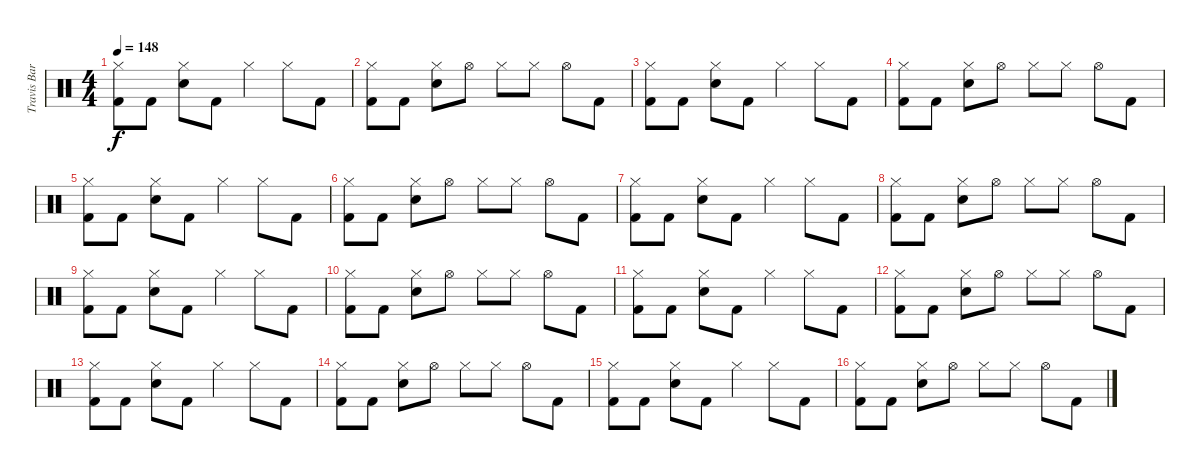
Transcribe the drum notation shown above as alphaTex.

\track ("Travis Barker - Drums" "Travis Bar") {instrument percussion}
\staff {score}
\articulation defaults
\ts (4 4)
\tempo 148
\clef neutral
\ks c
("Hi-Hat (closed)" "Kick (hit) 2").8{dy f} "Kick (hit) 2".8 ("Hi-Hat (closed)" "Electric Snare (hit)").8 "Kick (hit) 2".8 "Hi-Hat (closed)".4 "Hi-Hat (closed)".8 "Kick (hit) 2".8 |
("Hi-Hat (closed)" "Kick (hit) 2").8 "Kick (hit) 2".8 ("Hi-Hat (closed)" "Electric Snare (hit)").8 "Hi-Hat (open)".8 "Hi-Hat (closed)".8 "Hi-Hat (closed)".8 "Hi-Hat (open)".8 "Kick (hit) 2".8 |
("Hi-Hat (closed)" "Kick (hit) 2").8 "Kick (hit) 2".8 ("Hi-Hat (closed)" "Electric Snare (hit)").8 "Kick (hit) 2".8 "Hi-Hat (closed)".4 "Hi-Hat (closed)".8 "Kick (hit) 2".8 |
("Hi-Hat (closed)" "Kick (hit) 2").8 "Kick (hit) 2".8 ("Hi-Hat (closed)" "Electric Snare (hit)").8 "Hi-Hat (open)".8 "Hi-Hat (closed)".8 "Hi-Hat (closed)".8 "Hi-Hat (open)".8 "Kick (hit) 2".8 |
("Hi-Hat (closed)" "Kick (hit) 2").8 "Kick (hit) 2".8 ("Hi-Hat (closed)" "Electric Snare (hit)").8 "Kick (hit) 2".8 "Hi-Hat (closed)".4 "Hi-Hat (closed)".8 "Kick (hit) 2".8 |
("Hi-Hat (closed)" "Kick (hit) 2").8 "Kick (hit) 2".8 ("Hi-Hat (closed)" "Electric Snare (hit)").8 "Hi-Hat (open)".8 "Hi-Hat (closed)".8 "Hi-Hat (closed)".8 "Hi-Hat (open)".8 "Kick (hit) 2".8 |
("Hi-Hat (closed)" "Kick (hit) 2").8 "Kick (hit) 2".8 ("Hi-Hat (closed)" "Electric Snare (hit)").8 "Kick (hit) 2".8 "Hi-Hat (closed)".4 "Hi-Hat (closed)".8 "Kick (hit) 2".8 |
("Hi-Hat (closed)" "Kick (hit) 2").8 "Kick (hit) 2".8 ("Hi-Hat (closed)" "Electric Snare (hit)").8 "Hi-Hat (open)".8 "Hi-Hat (closed)".8 "Hi-Hat (closed)".8 "Hi-Hat (open)".8 "Kick (hit) 2".8 |
("Hi-Hat (closed)" "Kick (hit) 2").8 "Kick (hit) 2".8 ("Hi-Hat (closed)" "Electric Snare (hit)").8 "Kick (hit) 2".8 "Hi-Hat (closed)".4 "Hi-Hat (closed)".8 "Kick (hit) 2".8 |
("Hi-Hat (closed)" "Kick (hit) 2").8 "Kick (hit) 2".8 ("Hi-Hat (closed)" "Electric Snare (hit)").8 "Hi-Hat (open)".8 "Hi-Hat (closed)".8 "Hi-Hat (closed)".8 "Hi-Hat (open)".8 "Kick (hit) 2".8 |
("Hi-Hat (closed)" "Kick (hit) 2").8 "Kick (hit) 2".8 ("Hi-Hat (closed)" "Electric Snare (hit)").8 "Kick (hit) 2".8 "Hi-Hat (closed)".4 "Hi-Hat (closed)".8 "Kick (hit) 2".8 |
("Hi-Hat (closed)" "Kick (hit) 2").8 "Kick (hit) 2".8 ("Hi-Hat (closed)" "Electric Snare (hit)").8 "Hi-Hat (open)".8 "Hi-Hat (closed)".8 "Hi-Hat (closed)".8 "Hi-Hat (open)".8 "Kick (hit) 2".8 |
("Hi-Hat (closed)" "Kick (hit) 2").8 "Kick (hit) 2".8 ("Hi-Hat (closed)" "Electric Snare (hit)").8 "Kick (hit) 2".8 "Hi-Hat (closed)".4 "Hi-Hat (closed)".8 "Kick (hit) 2".8 |
("Hi-Hat (closed)" "Kick (hit) 2").8 "Kick (hit) 2".8 ("Hi-Hat (closed)" "Electric Snare (hit)").8 "Hi-Hat (open)".8 "Hi-Hat (closed)".8 "Hi-Hat (closed)".8 "Hi-Hat (open)".8 "Kick (hit) 2".8 |
("Hi-Hat (closed)" "Kick (hit) 2").8 "Kick (hit) 2".8 ("Hi-Hat (closed)" "Electric Snare (hit)").8 "Kick (hit) 2".8 "Hi-Hat (closed)".4 "Hi-Hat (closed)".8 "Kick (hit) 2".8 |
("Hi-Hat (closed)" "Kick (hit) 2").8 "Kick (hit) 2".8 ("Hi-Hat (closed)" "Electric Snare (hit)").8 "Hi-Hat (open)".8 "Hi-Hat (closed)".8 "Hi-Hat (closed)".8 "Hi-Hat (open)".8 "Kick (hit) 2".8
